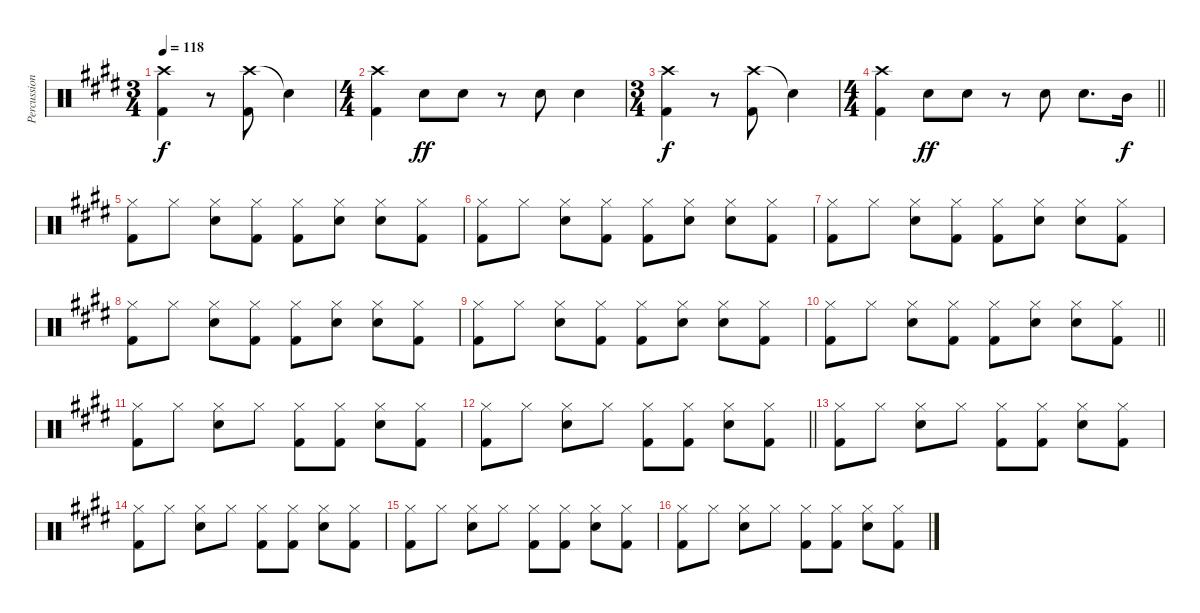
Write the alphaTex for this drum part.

\track ("Percussion" "Percussion") {instrument percussion}
\staff {score}
\articulation defaults
\ts (3 4)
\tempo 118
\clef neutral
\ks e
("Crash high (hit)" "Kick (hit) 2").4{dy f} r.8 ("Crash high (hit)" "Kick (hit) 2").8 "Snare (hit)"{t}.4 |
\ts (4 4)
("Crash high (hit)" "Kick (hit) 2").4 "Snare (hit) 2".8{dy ff} "Snare (hit) 2".8 r.8 "Snare (hit) 2".8 "Snare (hit) 2".4 |
\ts (3 4)
("Crash high (hit)" "Kick (hit) 2").4{dy f} r.8 ("Crash high (hit)" "Kick (hit) 2").8 "Snare (hit)"{t}.4 |
\ts (4 4)
\barLineRight lightlight
("Crash high (hit)" "Kick (hit) 2").4 "Snare (hit) 2".8{dy ff} "Snare (hit) 2".8 r.8 "Snare (hit) 2".8 "Snare (hit) 2".8{d} "Mid Tom (hit)".16{dy f} |
("Hi-Hat (closed)" "Kick (hit) 2").8 "Hi-Hat (closed)".8 ("Hi-Hat (closed)" "Snare (hit) 2").8 ("Hi-Hat (closed)" "Kick (hit) 2").8 ("Hi-Hat (closed)" "Kick (hit) 2").8 ("Hi-Hat (closed)" "Snare (hit) 2").8 ("Hi-Hat (closed)" "Snare (hit) 2").8 ("Hi-Hat (closed)" "Kick (hit) 2").8 |
("Hi-Hat (closed)" "Kick (hit) 2").8 "Hi-Hat (closed)".8 ("Hi-Hat (closed)" "Snare (hit) 2").8 ("Hi-Hat (closed)" "Kick (hit) 2").8 ("Hi-Hat (closed)" "Kick (hit) 2").8 ("Hi-Hat (closed)" "Snare (hit) 2").8 ("Hi-Hat (closed)" "Snare (hit) 2").8 ("Hi-Hat (closed)" "Kick (hit) 2").8 |
("Hi-Hat (closed)" "Kick (hit) 2").8 "Hi-Hat (closed)".8 ("Hi-Hat (closed)" "Snare (hit) 2").8 ("Hi-Hat (closed)" "Kick (hit) 2").8 ("Hi-Hat (closed)" "Kick (hit) 2").8 ("Hi-Hat (closed)" "Snare (hit) 2").8 ("Hi-Hat (closed)" "Snare (hit) 2").8 ("Hi-Hat (closed)" "Kick (hit) 2").8 |
("Hi-Hat (closed)" "Kick (hit) 2").8 "Hi-Hat (closed)".8 ("Hi-Hat (closed)" "Snare (hit) 2").8 ("Hi-Hat (closed)" "Kick (hit) 2").8 ("Hi-Hat (closed)" "Kick (hit) 2").8 ("Hi-Hat (closed)" "Snare (hit) 2").8 ("Hi-Hat (closed)" "Snare (hit) 2").8 ("Hi-Hat (closed)" "Kick (hit) 2").8 |
("Hi-Hat (closed)" "Kick (hit) 2").8 "Hi-Hat (closed)".8 ("Hi-Hat (closed)" "Snare (hit) 2").8 ("Hi-Hat (closed)" "Kick (hit) 2").8 ("Hi-Hat (closed)" "Kick (hit) 2").8 ("Hi-Hat (closed)" "Snare (hit) 2").8 ("Hi-Hat (closed)" "Snare (hit) 2").8 ("Hi-Hat (closed)" "Kick (hit) 2").8 |
\barLineRight lightlight
("Hi-Hat (closed)" "Kick (hit) 2").8 "Hi-Hat (closed)".8 ("Hi-Hat (closed)" "Snare (hit) 2").8 ("Hi-Hat (closed)" "Kick (hit) 2").8 ("Hi-Hat (closed)" "Kick (hit) 2").8 ("Hi-Hat (closed)" "Snare (hit) 2").8 ("Hi-Hat (closed)" "Snare (hit) 2").8 ("Hi-Hat (closed)" "Kick (hit) 2").8 |
("Hi-Hat (closed)" "Kick (hit) 2").8 "Hi-Hat (closed)".8 ("Hi-Hat (closed)" "Snare (hit) 2").8 "Hi-Hat (closed)".8 ("Hi-Hat (closed)" "Kick (hit) 2").8 ("Hi-Hat (closed)" "Kick (hit) 2").8 ("Hi-Hat (closed)" "Snare (hit) 2").8 ("Hi-Hat (closed)" "Kick (hit) 2").8 |
\barLineRight lightlight
("Hi-Hat (closed)" "Kick (hit) 2").8 "Hi-Hat (closed)".8 ("Hi-Hat (closed)" "Snare (hit) 2").8 "Hi-Hat (closed)".8 ("Hi-Hat (closed)" "Kick (hit) 2").8 ("Hi-Hat (closed)" "Kick (hit) 2").8 ("Hi-Hat (closed)" "Snare (hit) 2").8 ("Hi-Hat (closed)" "Kick (hit) 2").8 |
("Hi-Hat (closed)" "Kick (hit) 2").8 "Hi-Hat (closed)".8 ("Hi-Hat (closed)" "Snare (hit) 2").8 "Hi-Hat (closed)".8 ("Hi-Hat (closed)" "Kick (hit) 2").8 ("Hi-Hat (closed)" "Kick (hit) 2").8 ("Hi-Hat (closed)" "Snare (hit) 2").8 ("Hi-Hat (closed)" "Kick (hit) 2").8 |
("Hi-Hat (closed)" "Kick (hit) 2").8 "Hi-Hat (closed)".8 ("Hi-Hat (closed)" "Snare (hit) 2").8 "Hi-Hat (closed)".8 ("Hi-Hat (closed)" "Kick (hit) 2").8 ("Hi-Hat (closed)" "Kick (hit) 2").8 ("Hi-Hat (closed)" "Snare (hit) 2").8 ("Hi-Hat (closed)" "Kick (hit) 2").8 |
("Hi-Hat (closed)" "Kick (hit) 2").8 "Hi-Hat (closed)".8 ("Hi-Hat (closed)" "Snare (hit) 2").8 "Hi-Hat (closed)".8 ("Hi-Hat (closed)" "Kick (hit) 2").8 ("Hi-Hat (closed)" "Kick (hit) 2").8 ("Hi-Hat (closed)" "Snare (hit) 2").8 ("Hi-Hat (closed)" "Kick (hit) 2").8 |
("Hi-Hat (closed)" "Kick (hit) 2").8 "Hi-Hat (closed)".8 ("Hi-Hat (closed)" "Snare (hit) 2").8 "Hi-Hat (closed)".8 ("Hi-Hat (closed)" "Kick (hit) 2").8 ("Hi-Hat (closed)" "Kick (hit) 2").8 ("Hi-Hat (closed)" "Snare (hit) 2").8 ("Hi-Hat (closed)" "Kick (hit) 2").8
